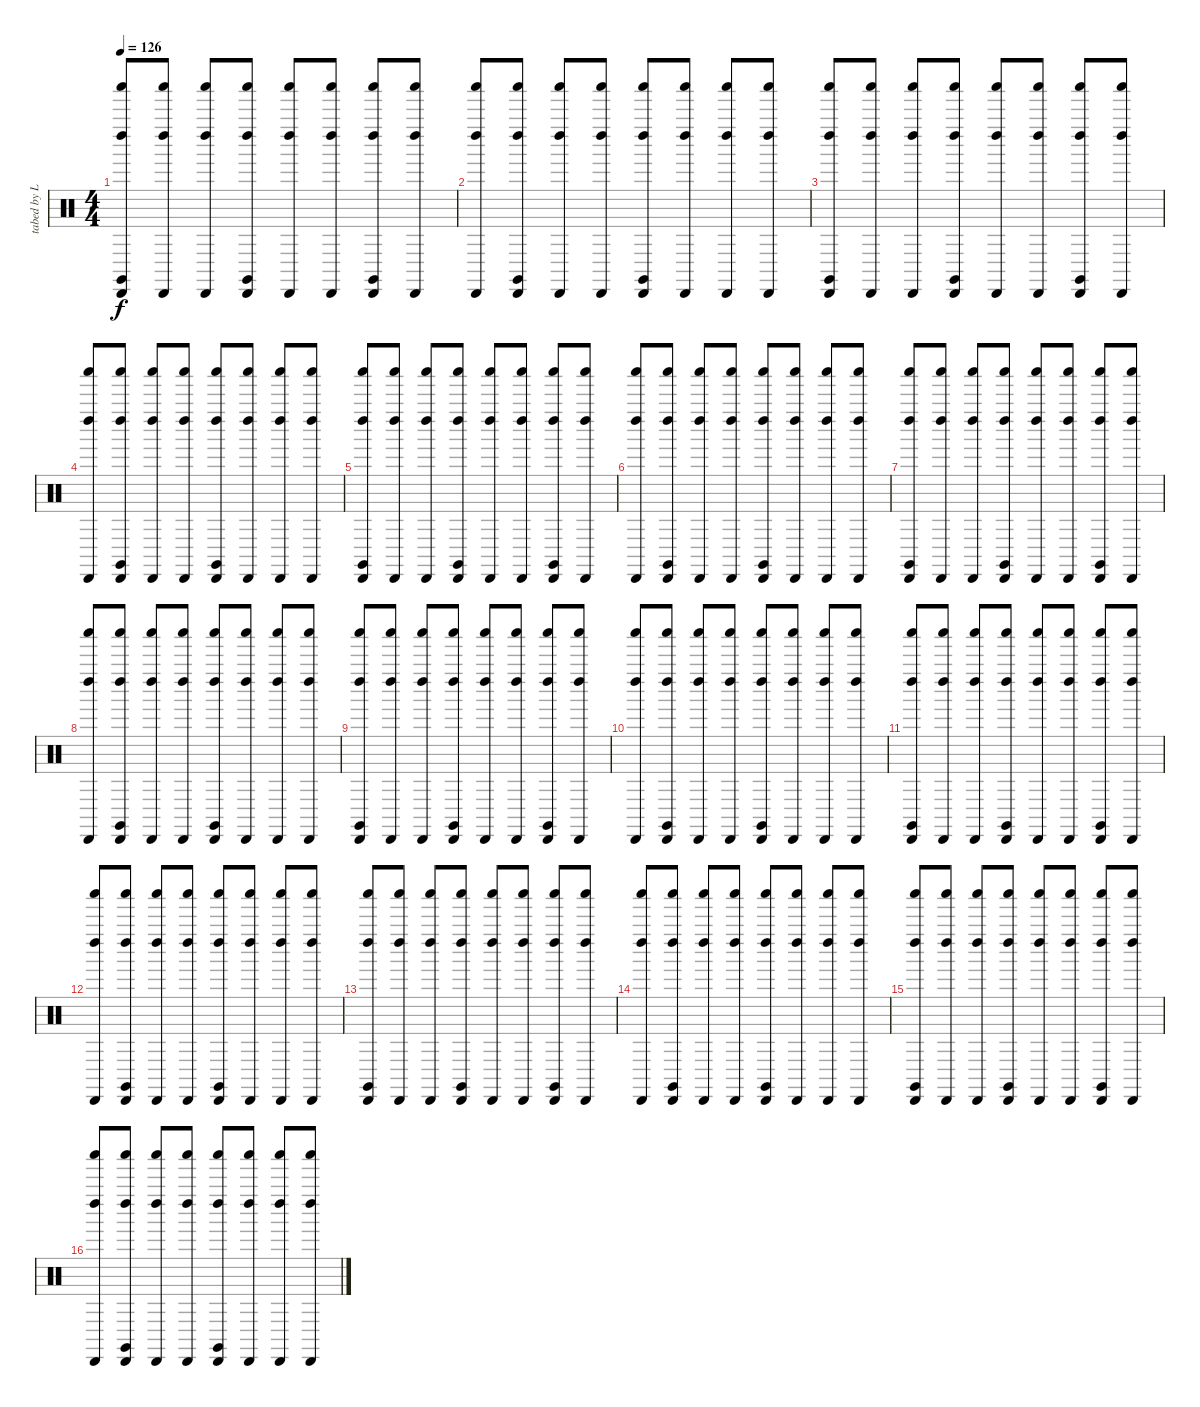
\track ("tabed by Leonid" "tabed by L") {instrument percussion}
\staff {score}
\articulation defaults
\ts (4 4)
\tempo 126
\clef neutral
\ks c
("Left Maraca (hit)" "Shaker (hit)" "Cabasa (hit)" "Claves (hit)").8{dy f} ("Left Maraca (hit)" "Shaker (hit)" "Cabasa (hit)").8 ("Left Maraca (hit)" "Shaker (hit)" "Cabasa (hit)").8 ("Left Maraca (hit)" "Shaker (hit)" "Cabasa (hit)" "Claves (hit)").8 ("Left Maraca (hit)" "Shaker (hit)" "Cabasa (hit)").8 ("Left Maraca (hit)" "Shaker (hit)" "Cabasa (hit)").8 ("Left Maraca (hit)" "Shaker (hit)" "Cabasa (hit)" "Claves (hit)").8 ("Left Maraca (hit)" "Shaker (hit)" "Cabasa (hit)").8 |
("Cabasa (hit)" "Shaker (hit)" "Left Maraca (hit)").8 ("Cabasa (hit)" "Shaker (hit)" "Left Maraca (hit)" "Claves (hit)").8 ("Cabasa (hit)" "Shaker (hit)" "Left Maraca (hit)").8 ("Cabasa (hit)" "Shaker (hit)" "Left Maraca (hit)").8 ("Cabasa (hit)" "Shaker (hit)" "Left Maraca (hit)" "Claves (hit)").8 ("Cabasa (hit)" "Shaker (hit)" "Left Maraca (hit)").8 ("Cabasa (hit)" "Shaker (hit)" "Left Maraca (hit)").8 ("Cabasa (hit)" "Shaker (hit)" "Left Maraca (hit)").8 |
("Cabasa (hit)" "Shaker (hit)" "Left Maraca (hit)" "Claves (hit)").8 ("Cabasa (hit)" "Shaker (hit)" "Left Maraca (hit)").8 ("Cabasa (hit)" "Shaker (hit)" "Left Maraca (hit)").8 ("Cabasa (hit)" "Shaker (hit)" "Left Maraca (hit)" "Claves (hit)").8 ("Cabasa (hit)" "Shaker (hit)" "Left Maraca (hit)").8 ("Cabasa (hit)" "Shaker (hit)" "Left Maraca (hit)").8 ("Cabasa (hit)" "Shaker (hit)" "Left Maraca (hit)" "Claves (hit)").8 ("Cabasa (hit)" "Shaker (hit)" "Left Maraca (hit)").8 |
("Cabasa (hit)" "Shaker (hit)" "Left Maraca (hit)").8 ("Cabasa (hit)" "Shaker (hit)" "Left Maraca (hit)" "Claves (hit)").8 ("Cabasa (hit)" "Shaker (hit)" "Left Maraca (hit)").8 ("Cabasa (hit)" "Shaker (hit)" "Left Maraca (hit)").8 ("Cabasa (hit)" "Shaker (hit)" "Left Maraca (hit)" "Claves (hit)").8 ("Cabasa (hit)" "Shaker (hit)" "Left Maraca (hit)").8 ("Cabasa (hit)" "Shaker (hit)" "Left Maraca (hit)").8 ("Cabasa (hit)" "Shaker (hit)" "Left Maraca (hit)").8 |
("Cabasa (hit)" "Shaker (hit)" "Left Maraca (hit)" "Claves (hit)").8 ("Cabasa (hit)" "Shaker (hit)" "Left Maraca (hit)").8 ("Cabasa (hit)" "Shaker (hit)" "Left Maraca (hit)").8 ("Cabasa (hit)" "Shaker (hit)" "Left Maraca (hit)" "Claves (hit)").8 ("Cabasa (hit)" "Shaker (hit)" "Left Maraca (hit)").8 ("Cabasa (hit)" "Shaker (hit)" "Left Maraca (hit)").8 ("Cabasa (hit)" "Shaker (hit)" "Left Maraca (hit)" "Claves (hit)").8 ("Cabasa (hit)" "Shaker (hit)" "Left Maraca (hit)").8 |
("Cabasa (hit)" "Left Maraca (hit)" "Shaker (hit)").8 ("Cabasa (hit)" "Left Maraca (hit)" "Shaker (hit)" "Claves (hit)").8 ("Cabasa (hit)" "Left Maraca (hit)" "Shaker (hit)").8 ("Cabasa (hit)" "Left Maraca (hit)" "Shaker (hit)").8 ("Cabasa (hit)" "Left Maraca (hit)" "Shaker (hit)" "Claves (hit)").8 ("Cabasa (hit)" "Left Maraca (hit)" "Shaker (hit)").8 ("Cabasa (hit)" "Left Maraca (hit)" "Shaker (hit)").8 ("Cabasa (hit)" "Left Maraca (hit)" "Shaker (hit)").8 |
("Cabasa (hit)" "Left Maraca (hit)" "Shaker (hit)" "Claves (hit)").8 ("Cabasa (hit)" "Left Maraca (hit)" "Shaker (hit)").8 ("Cabasa (hit)" "Left Maraca (hit)" "Shaker (hit)").8 ("Cabasa (hit)" "Left Maraca (hit)" "Shaker (hit)" "Claves (hit)").8 ("Cabasa (hit)" "Left Maraca (hit)" "Shaker (hit)").8 ("Cabasa (hit)" "Left Maraca (hit)" "Shaker (hit)").8 ("Cabasa (hit)" "Left Maraca (hit)" "Shaker (hit)" "Claves (hit)").8 ("Cabasa (hit)" "Left Maraca (hit)" "Shaker (hit)").8 |
("Shaker (hit)" "Left Maraca (hit)" "Cabasa (hit)").8 ("Shaker (hit)" "Left Maraca (hit)" "Cabasa (hit)" "Claves (hit)").8 ("Shaker (hit)" "Left Maraca (hit)" "Cabasa (hit)").8 ("Shaker (hit)" "Left Maraca (hit)" "Cabasa (hit)").8 ("Shaker (hit)" "Left Maraca (hit)" "Cabasa (hit)" "Claves (hit)").8 ("Shaker (hit)" "Left Maraca (hit)" "Cabasa (hit)").8 ("Shaker (hit)" "Left Maraca (hit)" "Cabasa (hit)").8 ("Shaker (hit)" "Left Maraca (hit)" "Cabasa (hit)").8 |
("Shaker (hit)" "Left Maraca (hit)" "Cabasa (hit)" "Claves (hit)").8 ("Shaker (hit)" "Left Maraca (hit)" "Cabasa (hit)").8 ("Shaker (hit)" "Left Maraca (hit)" "Cabasa (hit)").8 ("Shaker (hit)" "Left Maraca (hit)" "Cabasa (hit)" "Claves (hit)").8 ("Shaker (hit)" "Left Maraca (hit)" "Cabasa (hit)").8 ("Shaker (hit)" "Left Maraca (hit)" "Cabasa (hit)").8 ("Shaker (hit)" "Left Maraca (hit)" "Cabasa (hit)" "Claves (hit)").8 ("Shaker (hit)" "Left Maraca (hit)" "Cabasa (hit)").8 |
("Left Maraca (hit)" "Cabasa (hit)" "Shaker (hit)").8 ("Left Maraca (hit)" "Cabasa (hit)" "Shaker (hit)" "Claves (hit)").8 ("Left Maraca (hit)" "Cabasa (hit)" "Shaker (hit)").8 ("Left Maraca (hit)" "Cabasa (hit)" "Shaker (hit)").8 ("Left Maraca (hit)" "Cabasa (hit)" "Shaker (hit)" "Claves (hit)").8 ("Left Maraca (hit)" "Cabasa (hit)" "Shaker (hit)").8 ("Left Maraca (hit)" "Cabasa (hit)" "Shaker (hit)").8 ("Left Maraca (hit)" "Cabasa (hit)" "Shaker (hit)").8 |
("Left Maraca (hit)" "Cabasa (hit)" "Shaker (hit)" "Claves (hit)").8 ("Left Maraca (hit)" "Cabasa (hit)" "Shaker (hit)").8 ("Left Maraca (hit)" "Cabasa (hit)" "Shaker (hit)").8 ("Left Maraca (hit)" "Cabasa (hit)" "Shaker (hit)" "Claves (hit)").8 ("Left Maraca (hit)" "Cabasa (hit)" "Shaker (hit)").8 ("Left Maraca (hit)" "Cabasa (hit)" "Shaker (hit)").8 ("Left Maraca (hit)" "Cabasa (hit)" "Shaker (hit)" "Claves (hit)").8 ("Left Maraca (hit)" "Cabasa (hit)" "Shaker (hit)").8 |
("Left Maraca (hit)" "Cabasa (hit)" "Shaker (hit)").8 ("Left Maraca (hit)" "Cabasa (hit)" "Shaker (hit)" "Claves (hit)").8 ("Left Maraca (hit)" "Cabasa (hit)" "Shaker (hit)").8 ("Left Maraca (hit)" "Cabasa (hit)" "Shaker (hit)").8 ("Left Maraca (hit)" "Cabasa (hit)" "Shaker (hit)" "Claves (hit)").8 ("Left Maraca (hit)" "Cabasa (hit)" "Shaker (hit)").8 ("Left Maraca (hit)" "Cabasa (hit)" "Shaker (hit)").8 ("Left Maraca (hit)" "Cabasa (hit)" "Shaker (hit)").8 |
("Left Maraca (hit)" "Cabasa (hit)" "Shaker (hit)" "Claves (hit)").8 ("Left Maraca (hit)" "Cabasa (hit)" "Shaker (hit)").8 ("Left Maraca (hit)" "Cabasa (hit)" "Shaker (hit)").8 ("Left Maraca (hit)" "Cabasa (hit)" "Shaker (hit)" "Claves (hit)").8 ("Left Maraca (hit)" "Cabasa (hit)" "Shaker (hit)").8 ("Left Maraca (hit)" "Cabasa (hit)" "Shaker (hit)").8 ("Left Maraca (hit)" "Cabasa (hit)" "Shaker (hit)" "Claves (hit)").8 ("Left Maraca (hit)" "Cabasa (hit)" "Shaker (hit)").8 |
("Left Maraca (hit)" "Cabasa (hit)" "Shaker (hit)").8 ("Left Maraca (hit)" "Cabasa (hit)" "Shaker (hit)" "Claves (hit)").8 ("Left Maraca (hit)" "Cabasa (hit)" "Shaker (hit)").8 ("Left Maraca (hit)" "Cabasa (hit)" "Shaker (hit)").8 ("Left Maraca (hit)" "Cabasa (hit)" "Shaker (hit)" "Claves (hit)").8 ("Left Maraca (hit)" "Cabasa (hit)" "Shaker (hit)").8 ("Left Maraca (hit)" "Cabasa (hit)" "Shaker (hit)").8 ("Left Maraca (hit)" "Cabasa (hit)" "Shaker (hit)").8 |
("Left Maraca (hit)" "Cabasa (hit)" "Shaker (hit)" "Claves (hit)").8 ("Left Maraca (hit)" "Cabasa (hit)" "Shaker (hit)").8 ("Left Maraca (hit)" "Cabasa (hit)" "Shaker (hit)").8 ("Left Maraca (hit)" "Cabasa (hit)" "Shaker (hit)" "Claves (hit)").8 ("Left Maraca (hit)" "Cabasa (hit)" "Shaker (hit)").8 ("Left Maraca (hit)" "Cabasa (hit)" "Shaker (hit)").8 ("Left Maraca (hit)" "Cabasa (hit)" "Shaker (hit)" "Claves (hit)").8 ("Left Maraca (hit)" "Cabasa (hit)" "Shaker (hit)").8 |
("Left Maraca (hit)" "Cabasa (hit)" "Shaker (hit)").8 ("Left Maraca (hit)" "Cabasa (hit)" "Shaker (hit)" "Claves (hit)").8 ("Left Maraca (hit)" "Cabasa (hit)" "Shaker (hit)").8 ("Left Maraca (hit)" "Cabasa (hit)" "Shaker (hit)").8 ("Left Maraca (hit)" "Cabasa (hit)" "Shaker (hit)" "Claves (hit)").8 ("Left Maraca (hit)" "Cabasa (hit)" "Shaker (hit)").8 ("Left Maraca (hit)" "Cabasa (hit)" "Shaker (hit)").8 ("Left Maraca (hit)" "Cabasa (hit)" "Shaker (hit)").8
